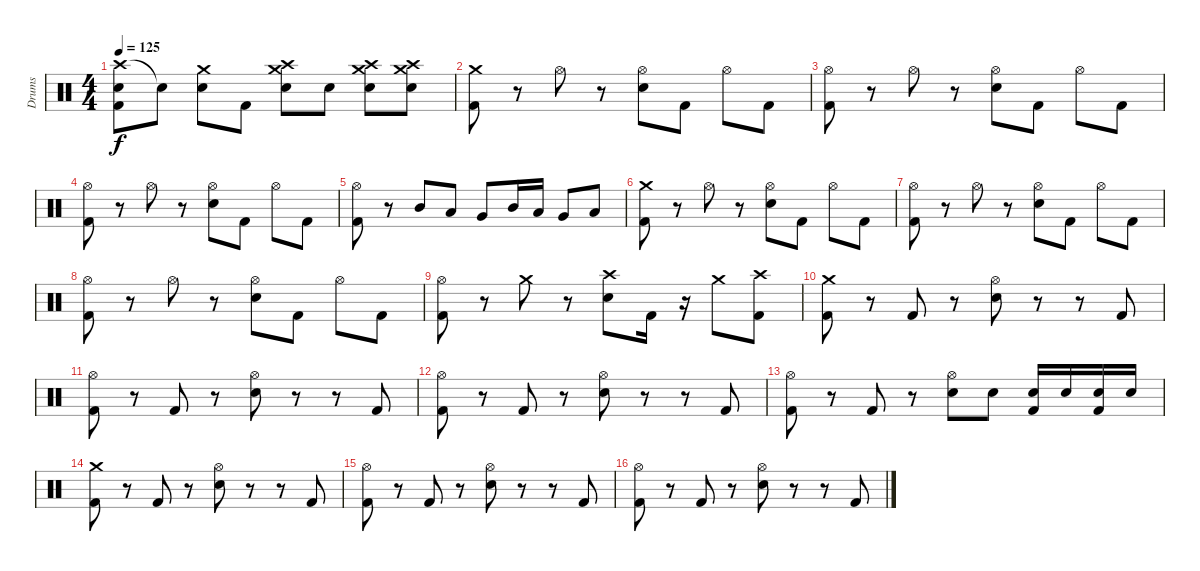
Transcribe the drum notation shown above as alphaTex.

\track ("Drums" "Drums") {instrument percussion}
\staff {score}
\articulation defaults
\ts (4 4)
\tempo 125
\clef neutral
\ks c
("Crash high (hit)" "Electric Snare (hit)" "Kick (hit) 2").8{dy f} "Snare (hit)"{t}.8 ("Crash medium (hit)" "Electric Snare (hit)").8 "Kick (hit) 2".8 ("Crash medium (hit)" "Crash high (hit)" "Electric Snare (hit)").8 "Electric Snare (hit)".8 ("Crash medium (hit)" "Crash high (hit)" "Electric Snare (hit)").8 ("Crash medium (hit)" "Crash high (hit)" "Electric Snare (hit)").8 |
("Crash medium (hit)" "Kick (hit) 2").8 r.8 "Hi-Hat (open)".8 r.8 ("Hi-Hat (open)" "Electric Snare (hit)").8 "Kick (hit) 2".8 "Hi-Hat (open)".8 "Kick (hit) 2".8 |
("Hi-Hat (open)" "Kick (hit) 2").8 r.8 "Hi-Hat (open)".8 r.8 ("Hi-Hat (open)" "Electric Snare (hit)").8 "Kick (hit) 2".8 "Hi-Hat (open)".8 "Kick (hit) 2".8 |
("Hi-Hat (open)" "Kick (hit) 2").8 r.8 "Hi-Hat (open)".8 r.8 ("Hi-Hat (open)" "Electric Snare (hit)").8 "Kick (hit) 2".8 "Hi-Hat (open)".8 "Kick (hit) 2".8 |
("Hi-Hat (open)" "Kick (hit) 2").8 r.8 "Mid Tom (hit)".8 "Low Tom (hit)".8 "Very Low Tom (hit)".8 "Mid Tom (hit)".16 "Low Tom (hit)".16 "Very Low Tom (hit)".8 "Low Floor Tom (hit)".8 |
("Crash medium (hit)" "Kick (hit) 2").8 r.8 "Hi-Hat (open)".8 r.8 ("Hi-Hat (open)" "Electric Snare (hit)").8 "Kick (hit) 2".8 "Hi-Hat (open)".8 "Kick (hit) 2".8 |
("Hi-Hat (open)" "Kick (hit) 2").8 r.8 "Hi-Hat (open)".8 r.8 ("Hi-Hat (open)" "Electric Snare (hit)").8 "Kick (hit) 2".8 "Hi-Hat (open)".8 "Kick (hit) 2".8 |
("Hi-Hat (open)" "Kick (hit) 2").8 r.8 "Hi-Hat (open)".8 r.8 ("Hi-Hat (open)" "Electric Snare (hit)").8 "Kick (hit) 2".8 "Hi-Hat (open)".8 "Kick (hit) 2".8 |
("Hi-Hat (open)" "Kick (hit) 2").8 r.8 "Crash medium (hit)".8 r.8 ("Crash high (hit)" "Electric Snare (hit)").8 "Kick (hit) 2".16 r.16 "Crash medium (hit)".8 ("Crash high (hit)" "Kick (hit) 2").8 |
("Crash medium (hit)" "Kick (hit) 2").8 r.8 "Kick (hit) 2".8 r.8 ("Hi-Hat (open)" "Electric Snare (hit)").8 r.8 r.8 "Kick (hit) 2".8 |
("Hi-Hat (open)" "Kick (hit) 2").8 r.8 "Kick (hit) 2".8 r.8 ("Hi-Hat (open)" "Electric Snare (hit)").8 r.8 r.8 "Kick (hit) 2".8 |
("Hi-Hat (open)" "Kick (hit) 2").8 r.8 "Kick (hit) 2".8 r.8 ("Hi-Hat (open)" "Electric Snare (hit)").8 r.8 r.8 "Kick (hit) 2".8 |
("Hi-Hat (open)" "Kick (hit) 2").8 r.8 "Kick (hit) 2".8 r.8 ("Hi-Hat (open)" "Electric Snare (hit)").8 "Electric Snare (hit)".8 ("Electric Snare (hit)" "Kick (hit) 2").16 "Electric Snare (hit)".16 ("Electric Snare (hit)" "Kick (hit) 2").16 "Electric Snare (hit)".16 |
("Crash medium (hit)" "Kick (hit) 2").8 r.8 "Kick (hit) 2".8 r.8 ("Hi-Hat (open)" "Electric Snare (hit)").8 r.8 r.8 "Kick (hit) 2".8 |
("Hi-Hat (open)" "Kick (hit) 2").8 r.8 "Kick (hit) 2".8 r.8 ("Hi-Hat (open)" "Electric Snare (hit)").8 r.8 r.8 "Kick (hit) 2".8 |
("Hi-Hat (open)" "Kick (hit) 2").8 r.8 "Kick (hit) 2".8 r.8 ("Hi-Hat (open)" "Electric Snare (hit)").8 r.8 r.8 "Kick (hit) 2".8
